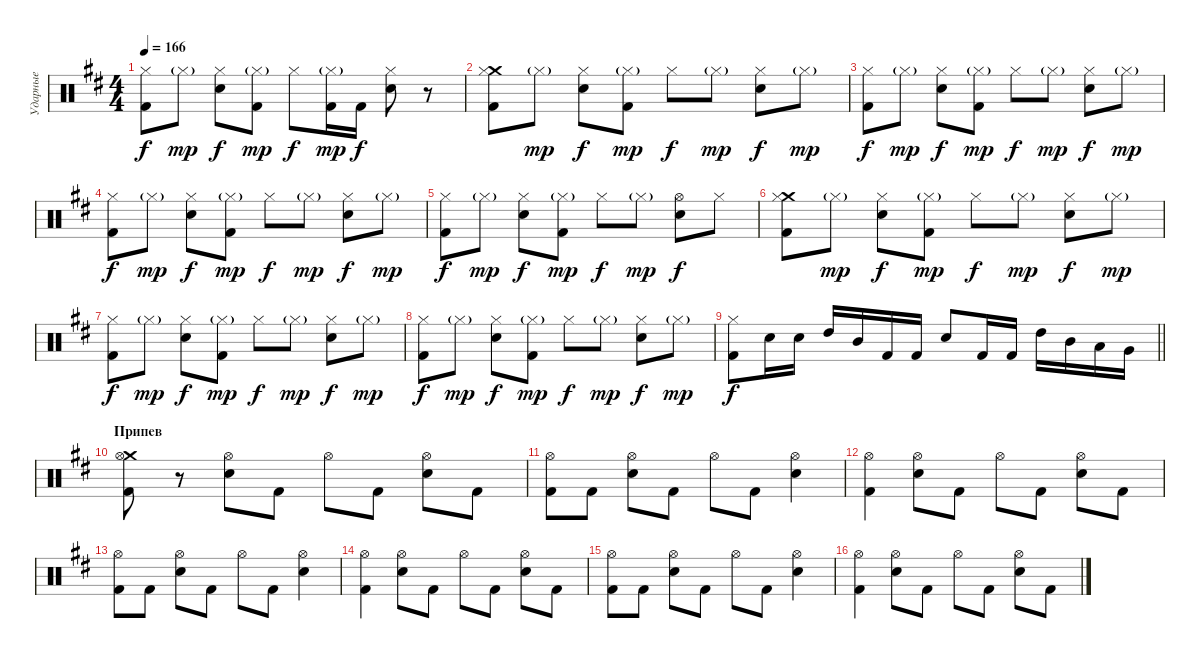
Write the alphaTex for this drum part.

\track ("Ударные" "Ударные") {instrument percussion}
\staff {score}
\articulation defaults
\ts (4 4)
\tempo 166
\clef neutral
\ks bminor
("Kick (hit) 2" "Hi-Hat (closed)").8{dy f} "Hi-Hat (closed)"{g}.8{dy mp} ("Electric Snare (hit)" "Hi-Hat (closed)").8{dy f} ("Kick (hit) 2" "Hi-Hat (closed)"{g}).8{dy mp} "Hi-Hat (closed)".8{dy f} ("Kick (hit) 2" "Hi-Hat (closed)"{g}).16{dy mp} "Kick (hit) 2".16{dy f} ("Electric Snare (hit)" "Hi-Hat (closed)").8 r.8 |
("Crash medium (hit)" "Kick (hit) 2" "Hi-Hat (closed)").8 "Hi-Hat (closed)"{g}.8{dy mp} ("Electric Snare (hit)" "Hi-Hat (closed)").8{dy f} ("Kick (hit) 2" "Hi-Hat (closed)"{g}).8{dy mp} "Hi-Hat (closed)".8{dy f} "Hi-Hat (closed)"{g}.8{dy mp} ("Electric Snare (hit)" "Hi-Hat (closed)").8{dy f} "Hi-Hat (closed)"{g}.8{dy mp} |
("Kick (hit) 2" "Hi-Hat (closed)").8{dy f} "Hi-Hat (closed)"{g}.8{dy mp} ("Electric Snare (hit)" "Hi-Hat (closed)").8{dy f} ("Kick (hit) 2" "Hi-Hat (closed)"{g}).8{dy mp} "Hi-Hat (closed)".8{dy f} "Hi-Hat (closed)"{g}.8{dy mp} ("Electric Snare (hit)" "Hi-Hat (closed)").8{dy f} "Hi-Hat (closed)"{g}.8{dy mp} |
("Kick (hit) 2" "Hi-Hat (closed)").8{dy f} "Hi-Hat (closed)"{g}.8{dy mp} ("Electric Snare (hit)" "Hi-Hat (closed)").8{dy f} ("Kick (hit) 2" "Hi-Hat (closed)"{g}).8{dy mp} "Hi-Hat (closed)".8{dy f} "Hi-Hat (closed)"{g}.8{dy mp} ("Electric Snare (hit)" "Hi-Hat (closed)").8{dy f} "Hi-Hat (closed)"{g}.8{dy mp} |
("Kick (hit) 2" "Hi-Hat (closed)").8{dy f} "Hi-Hat (closed)"{g}.8{dy mp} ("Electric Snare (hit)" "Hi-Hat (closed)").8{dy f} ("Kick (hit) 2" "Hi-Hat (closed)"{g}).8{dy mp} "Hi-Hat (closed)".8{dy f} "Hi-Hat (closed)"{g}.8{dy mp} ("Electric Snare (hit)" "Hi-Hat (open)").8{dy f} "Hi-Hat (closed)".8 |
("Crash medium (hit)" "Kick (hit) 2" "Hi-Hat (closed)").8 "Hi-Hat (closed)"{g}.8{dy mp} ("Electric Snare (hit)" "Hi-Hat (closed)").8{dy f} ("Kick (hit) 2" "Hi-Hat (closed)"{g}).8{dy mp} "Hi-Hat (closed)".8{dy f} "Hi-Hat (closed)"{g}.8{dy mp} ("Electric Snare (hit)" "Hi-Hat (closed)").8{dy f} "Hi-Hat (closed)"{g}.8{dy mp} |
("Kick (hit) 2" "Hi-Hat (closed)").8{dy f} "Hi-Hat (closed)"{g}.8{dy mp} ("Electric Snare (hit)" "Hi-Hat (closed)").8{dy f} ("Kick (hit) 2" "Hi-Hat (closed)"{g}).8{dy mp} "Hi-Hat (closed)".8{dy f} "Hi-Hat (closed)"{g}.8{dy mp} ("Electric Snare (hit)" "Hi-Hat (closed)").8{dy f} "Hi-Hat (closed)"{g}.8{dy mp} |
("Kick (hit) 2" "Hi-Hat (closed)").8{dy f} "Hi-Hat (closed)"{g}.8{dy mp} ("Electric Snare (hit)" "Hi-Hat (closed)").8{dy f} ("Kick (hit) 2" "Hi-Hat (closed)"{g}).8{dy mp} "Hi-Hat (closed)".8{dy f} "Hi-Hat (closed)"{g}.8{dy mp} ("Electric Snare (hit)" "Hi-Hat (closed)").8{dy f} "Hi-Hat (closed)"{g}.8{dy mp} |
\barLineRight lightlight
("Kick (hit) 2" "Hi-Hat (closed)").8{dy f} "Electric Snare (hit)".16 "Electric Snare (hit)".16 "High Tom (hit)".16 "Mid Tom (hit)".16 "Kick (hit) 2".16 "Kick (hit) 2".16 "Electric Snare (hit)".8 "Kick (hit) 2".16 "Kick (hit) 2".16 "High Tom (hit)".16 "Mid Tom (hit)".16 "Low Tom (hit)".16 "Very Low Tom (hit)".16 |
\section ("" "Припев")
("Crash medium (hit)" "Kick (hit) 2" "Hi-Hat (open)").8 r.8 ("Electric Snare (hit)" "Hi-Hat (open)").8 "Kick (hit) 2".8 "Hi-Hat (open)".8 "Kick (hit) 2".8 ("Electric Snare (hit)" "Hi-Hat (open)").8 "Kick (hit) 2".8 |
("Kick (hit) 2" "Hi-Hat (open)").8 "Kick (hit) 2".8 ("Electric Snare (hit)" "Hi-Hat (open)").8 "Kick (hit) 2".8 "Hi-Hat (open)".8 "Kick (hit) 2".8 ("Electric Snare (hit)" "Hi-Hat (open)").4 |
("Kick (hit) 2" "Hi-Hat (open)").4 ("Electric Snare (hit)" "Hi-Hat (open)").8 "Kick (hit) 2".8 "Hi-Hat (open)".8 "Kick (hit) 2".8 ("Electric Snare (hit)" "Hi-Hat (open)").8 "Kick (hit) 2".8 |
("Kick (hit) 2" "Hi-Hat (open)").8 "Kick (hit) 2".8 ("Electric Snare (hit)" "Hi-Hat (open)").8 "Kick (hit) 2".8 "Hi-Hat (open)".8 "Kick (hit) 2".8 ("Electric Snare (hit)" "Hi-Hat (open)").4 |
("Kick (hit) 2" "Hi-Hat (open)").4 ("Electric Snare (hit)" "Hi-Hat (open)").8 "Kick (hit) 2".8 "Hi-Hat (open)".8 "Kick (hit) 2".8 ("Electric Snare (hit)" "Hi-Hat (open)").8 "Kick (hit) 2".8 |
("Kick (hit) 2" "Hi-Hat (open)").8 "Kick (hit) 2".8 ("Electric Snare (hit)" "Hi-Hat (open)").8 "Kick (hit) 2".8 "Hi-Hat (open)".8 "Kick (hit) 2".8 ("Electric Snare (hit)" "Hi-Hat (open)").4 |
("Kick (hit) 2" "Hi-Hat (open)").4 ("Electric Snare (hit)" "Hi-Hat (open)").8 "Kick (hit) 2".8 "Hi-Hat (open)".8 "Kick (hit) 2".8 ("Electric Snare (hit)" "Hi-Hat (open)").8 "Kick (hit) 2".8
